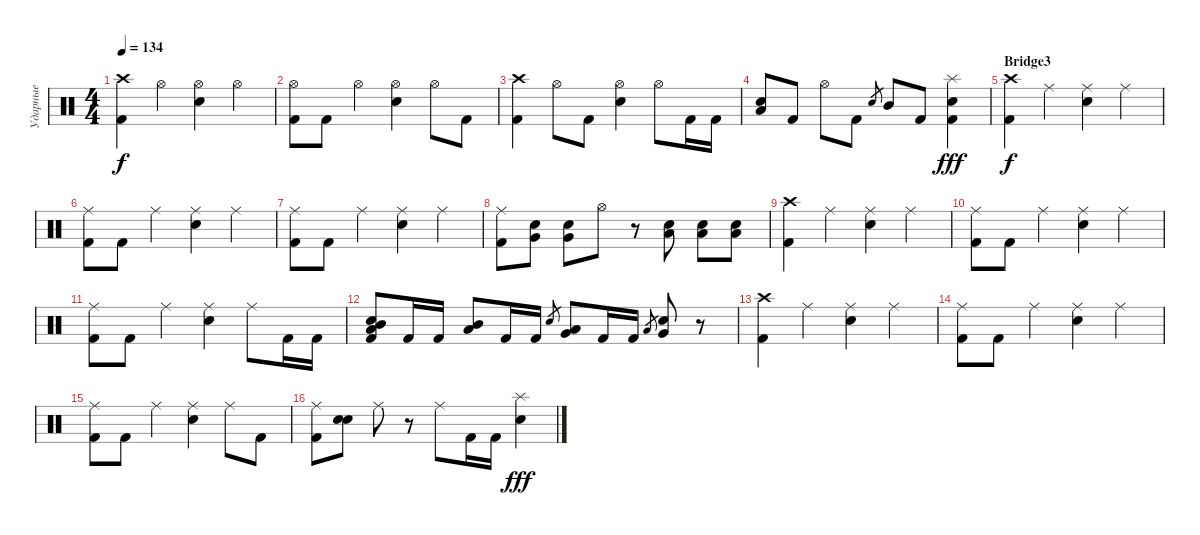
\track ("Ударные" "Ударные") {instrument percussion}
\staff {score}
\articulation defaults
\ts (4 4)
\tempo 134
\clef neutral
\ks c
("Crash high (hit)" "Kick (hit) 2").4{dy f} "Hi-Hat (open)".4 ("Hi-Hat (open)" "Electric Snare (hit)").4 "Hi-Hat (open)".4 |
("Hi-Hat (open)" "Kick (hit) 2").8 "Kick (hit) 2".8 "Hi-Hat (open)".4 ("Hi-Hat (open)" "Electric Snare (hit)").4 "Hi-Hat (open)".8 "Kick (hit) 2".8 |
("Crash high (hit)" "Kick (hit) 2").4 "Hi-Hat (open)".8 "Kick (hit) 2".8 ("Hi-Hat (open)" "Electric Snare (hit)").4 "Hi-Hat (open)".8 "Kick (hit) 2".16 "Kick (hit) 2".16 |
("Electric Snare (hit)" "Low Tom (hit)").8 "Kick (hit) 2".8 "Hi-Hat (open)".8 "Kick (hit) 2".8 "Electric Snare (hit)".8{gr} "Mid Tom (hit)".8 "Kick (hit) 2".8 ("Splash (hit)" "Electric Snare (hit)" "Kick (hit) 2").4{dy fff} |
\section ("" "Bridge3")
("Crash high (hit)" "Kick (hit) 2").4{dy f} "Ride (middle)".4 ("Ride (middle)" "Electric Snare (hit)").4 "Ride (middle)".4 |
("Ride (middle)" "Kick (hit) 2").8 "Kick (hit) 2".8 "Ride (middle)".4 ("Ride (middle)" "Electric Snare (hit)").4 "Ride (middle)".4 |
("Ride (middle)" "Kick (hit) 2").8 "Kick (hit) 2".8 "Ride (middle)".4 ("Ride (middle)" "Electric Snare (hit)").4 "Ride (middle)".4 |
("Ride (middle)" "Kick (hit) 2").8 ("Electric Snare (hit)" "Very Low Tom (hit)").8 ("Electric Snare (hit)" "Very Low Tom (hit)").8 "Hi-Hat (open)".8 r.8 ("Electric Snare (hit)" "Low Floor Tom (hit)").8 ("Electric Snare (hit)" "Low Floor Tom (hit)").8 ("Electric Snare (hit)" "Low Floor Tom (hit)").8 |
("Crash high (hit)" "Kick (hit) 2").4 "Ride (middle)".4 ("Ride (middle)" "Electric Snare (hit)").4 "Ride (middle)".4 |
("Ride (middle)" "Kick (hit) 2").8 "Kick (hit) 2".8 "Ride (middle)".4 ("Ride (middle)" "Electric Snare (hit)").4 "Ride (middle)".4 |
("Ride (middle)" "Kick (hit) 2").8 "Kick (hit) 2".8 "Ride (middle)".4 ("Ride (middle)" "Electric Snare (hit)").4 "Ride (middle)".8 "Kick (hit) 2".16 "Kick (hit) 2".16 |
("Mid Tom (hit)" "Electric Snare (hit)" "Low Tom (hit)" "Kick (hit) 2").8 "Kick (hit) 2".16 "Kick (hit) 2".16 ("Low Tom (hit)" "Mid Tom (hit)").8 "Kick (hit) 2".16 "Kick (hit) 2".16 "Electric Snare (hit)".8{gr} ("Very Low Tom (hit)" "Low Tom (hit)").8 "Kick (hit) 2".16 "Kick (hit) 2".16 "Low Floor Tom (hit)".8{gr} ("Electric Snare (hit)" "Very Low Tom (hit)").8 r.8 |
("Crash high (hit)" "Kick (hit) 2").4 "Ride (middle)".4 ("Ride (middle)" "Electric Snare (hit)").4 "Ride (middle)".4 |
("Ride (middle)" "Kick (hit) 2").8 "Kick (hit) 2".8 "Ride (middle)".4 ("Ride (middle)" "Electric Snare (hit)").4 "Ride (middle)".4 |
("Ride (middle)" "Kick (hit) 2").8 "Kick (hit) 2".8 "Ride (middle)".4 ("Ride (middle)" "Electric Snare (hit)").4 "Ride (middle)".8 "Kick (hit) 2".8 |
("Ride (middle)" "Kick (hit) 2").8 ("Electric Snare (hit)" "Electric Snare (hit)").8 "Ride (middle)".8 r.8 "Ride (middle)".8 "Kick (hit) 2".16 "Kick (hit) 2".16 ("Splash (hit)" "Electric Snare (hit)").4{dy fff}
